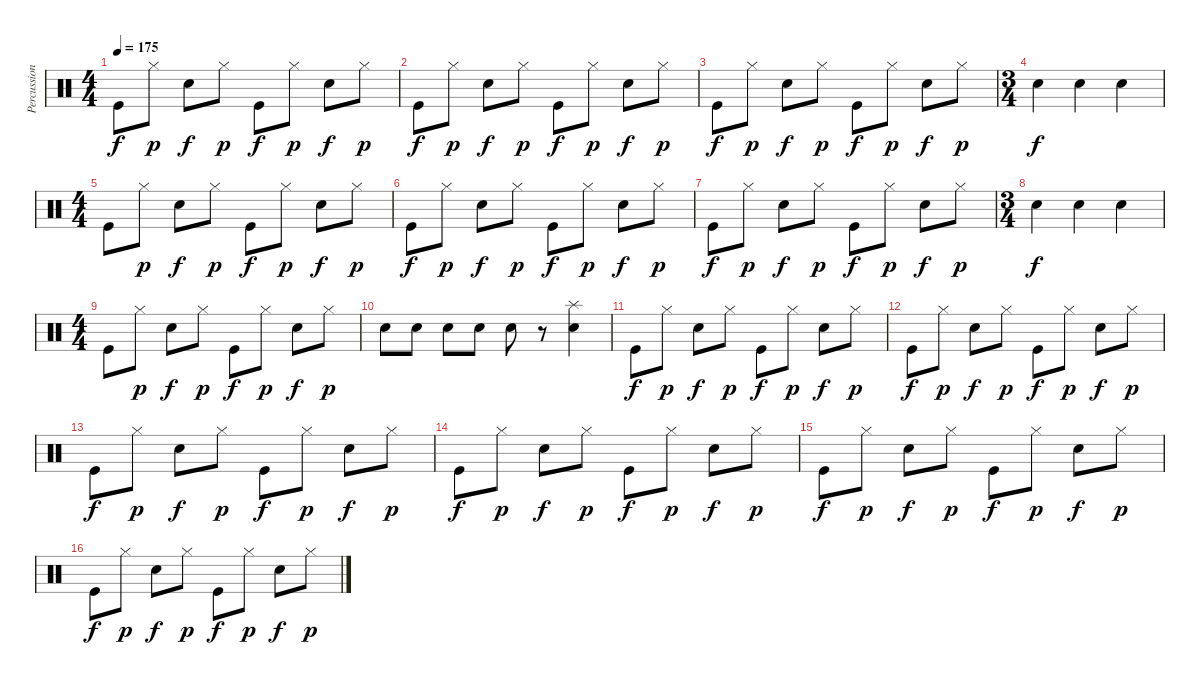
\track ("Percussion" "Percussion") {instrument percussion}
\staff {score}
\articulation defaults
\ts (4 4)
\tempo 175
\clef neutral
\ks c "Kick (hit)".8{dy f} "Hi-Hat (closed)".8{dy p} "Snare (hit) 2".8{dy f} "Hi-Hat (closed)".8{dy p} "Kick (hit)".8{dy f} "Hi-Hat (closed)".8{dy p} "Snare (hit) 2".8{dy f} "Hi-Hat (closed)".8{dy p}
|
"Kick (hit)".8{dy f} "Hi-Hat (closed)".8{dy p} "Snare (hit) 2".8{dy f} "Hi-Hat (closed)".8{dy p} "Kick (hit)".8{dy f} "Hi-Hat (closed)".8{dy p} "Snare (hit) 2".8{dy f} "Hi-Hat (closed)".8{dy p} |
"Kick (hit)".8{dy f} "Hi-Hat (closed)".8{dy p} "Snare (hit) 2".8{dy f} "Hi-Hat (closed)".8{dy p} "Kick (hit)".8{dy f} "Hi-Hat (closed)".8{dy p} "Snare (hit) 2".8{dy f} "Hi-Hat (closed)".8{dy p} |
\ts (3 4)
"Snare (hit) 2".4{dy f} "Snare (hit) 2".4 "Snare (hit) 2".4 |
\ts (4 4)
"Kick (hit)".8 "Hi-Hat (closed)".8{dy p} "Snare (hit) 2".8{dy f} "Hi-Hat (closed)".8{dy p} "Kick (hit)".8{dy f} "Hi-Hat (closed)".8{dy p} "Snare (hit) 2".8{dy f} "Hi-Hat (closed)".8{dy p} |
"Kick (hit)".8{dy f} "Hi-Hat (closed)".8{dy p} "Snare (hit) 2".8{dy f} "Hi-Hat (closed)".8{dy p} "Kick (hit)".8{dy f} "Hi-Hat (closed)".8{dy p} "Snare (hit) 2".8{dy f} "Hi-Hat (closed)".8{dy p} |
"Kick (hit)".8{dy f} "Hi-Hat (closed)".8{dy p} "Snare (hit) 2".8{dy f} "Hi-Hat (closed)".8{dy p} "Kick (hit)".8{dy f} "Hi-Hat (closed)".8{dy p} "Snare (hit) 2".8{dy f} "Hi-Hat (closed)".8{dy p} |
\ts (3 4)
"Snare (hit) 2".4{dy f} "Snare (hit) 2".4 "Snare (hit) 2".4 |
\ts (4 4)
"Kick (hit)".8 "Hi-Hat (closed)".8{dy p} "Snare (hit) 2".8{dy f} "Hi-Hat (closed)".8{dy p} "Kick (hit)".8{dy f} "Hi-Hat (closed)".8{dy p} "Snare (hit) 2".8{dy f} "Hi-Hat (closed)".8{dy p} |
"Snare (hit) 2".8 "Snare (hit) 2".8 "Snare (hit) 2".8 "Snare (hit) 2".8 "Snare (hit) 2".8 r.8 ("Splash (hit)" "Snare (hit) 2").4 |
"Kick (hit)".8{dy f} "Hi-Hat (closed)".8{dy p} "Snare (hit) 2".8{dy f} "Hi-Hat (closed)".8{dy p} "Kick (hit)".8{dy f} "Hi-Hat (closed)".8{dy p} "Snare (hit) 2".8{dy f} "Hi-Hat (closed)".8{dy p} |
"Kick (hit)".8{dy f} "Hi-Hat (closed)".8{dy p} "Snare (hit) 2".8{dy f} "Hi-Hat (closed)".8{dy p} "Kick (hit)".8{dy f} "Hi-Hat (closed)".8{dy p} "Snare (hit) 2".8{dy f} "Hi-Hat (closed)".8{dy p} |
"Kick (hit)".8{dy f} "Hi-Hat (closed)".8{dy p} "Snare (hit) 2".8{dy f} "Hi-Hat (closed)".8{dy p} "Kick (hit)".8{dy f} "Hi-Hat (closed)".8{dy p} "Snare (hit) 2".8{dy f} "Hi-Hat (closed)".8{dy p} |
"Kick (hit)".8{dy f} "Hi-Hat (closed)".8{dy p} "Snare (hit) 2".8{dy f} "Hi-Hat (closed)".8{dy p} "Kick (hit)".8{dy f} "Hi-Hat (closed)".8{dy p} "Snare (hit) 2".8{dy f} "Hi-Hat (closed)".8{dy p} |
"Kick (hit)".8{dy f} "Hi-Hat (closed)".8{dy p} "Snare (hit) 2".8{dy f} "Hi-Hat (closed)".8{dy p} "Kick (hit)".8{dy f} "Hi-Hat (closed)".8{dy p} "Snare (hit) 2".8{dy f} "Hi-Hat (closed)".8{dy p} |
"Kick (hit)".8{dy f} "Hi-Hat (closed)".8{dy p} "Snare (hit) 2".8{dy f} "Hi-Hat (closed)".8{dy p} "Kick (hit)".8{dy f} "Hi-Hat (closed)".8{dy p} "Snare (hit) 2".8{dy f} "Hi-Hat (closed)".8{dy p}
